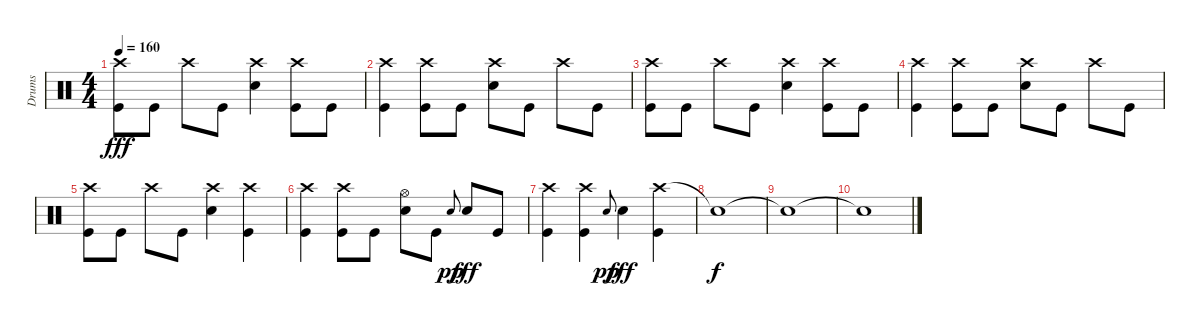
\track ("Drums" "Drums") {instrument percussion}
\staff {score}
\articulation defaults
\ts (4 4)
\tempo 160
\clef neutral
\ks c
("Crash high (hit)" "Kick (hit)").8{dy fff} "Kick (hit)".8 "Crash high (hit)".8 "Kick (hit)".8 ("Crash high (hit)" "Snare (hit) 2").4 ("Crash high (hit)" "Kick (hit)").8 "Kick (hit)".8 |
("Crash high (hit)" "Kick (hit)").4 ("Crash high (hit)" "Kick (hit)").8 "Kick (hit)".8 ("Crash high (hit)" "Snare (hit) 2").8 "Kick (hit)".8 "Crash high (hit)".8 "Kick (hit)".8 |
("Crash high (hit)" "Kick (hit)").8 "Kick (hit)".8 "Crash high (hit)".8 "Kick (hit)".8 ("Crash high (hit)" "Snare (hit) 2").4 ("Crash high (hit)" "Kick (hit)").8 "Kick (hit)".8 |
("Crash high (hit)" "Kick (hit)").4 ("Crash high (hit)" "Kick (hit)").8 "Kick (hit)".8 ("Crash high (hit)" "Snare (hit) 2").8 "Kick (hit)".8 "Crash high (hit)".8 "Kick (hit)".8 |
("Crash high (hit)" "Kick (hit)").8 "Kick (hit)".8 "Crash high (hit)".8 "Kick (hit)".8 ("Crash high (hit)" "Snare (hit) 2").4 ("Crash high (hit)" "Kick (hit)").4 |
("Crash high (hit)" "Kick (hit)").4 ("Crash high (hit)" "Kick (hit)").8 "Kick (hit)".8 ("Hi-Hat (open)" "Snare (hit) 2").8 "Kick (hit)".8 "Snare (hit) 2".8{gr onbeat dy pp} "Snare (hit) 2".8{dy fff} "Kick (hit)".8 |
("Crash high (hit)" "Kick (hit)").4 ("Crash high (hit)" "Kick (hit)").4 "Snare (hit) 2".8{gr onbeat dy pp} "Snare (hit) 2".4{dy fff} ("Crash high (hit)" "Kick (hit)").4 |
"Snare (hit)"{t}.1{dy f} |
"Snare (hit)"{t}.1 |
"Snare (hit)"{t}.1
